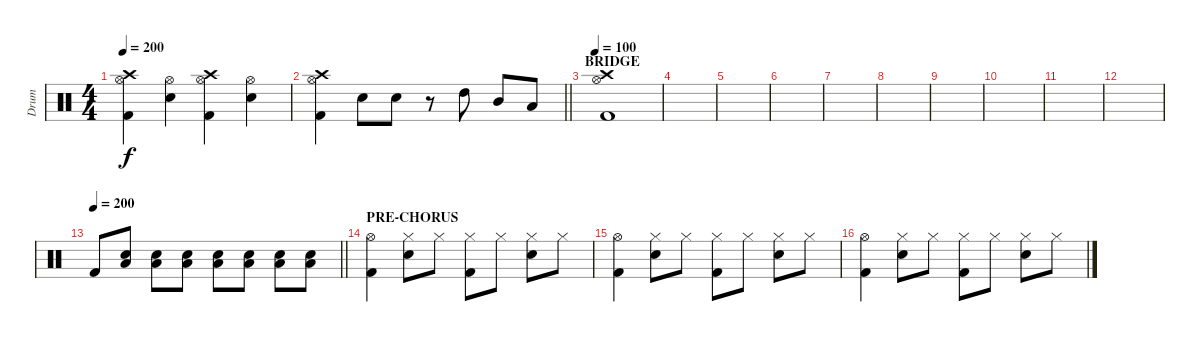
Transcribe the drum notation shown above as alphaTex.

\track ("Drum" "Drum") {instrument percussion}
\staff {score}
\articulation defaults
\ts (4 4)
\tempo 200
\clef neutral
\ks c
("Crash high (hit)" "Hi-Hat (open)" "Kick (hit) 2").4{dy f} ("Hi-Hat (open)" "Snare (hit) 2").4 ("Crash high (hit)" "Hi-Hat (open)" "Kick (hit) 2").4 ("Hi-Hat (open)" "Snare (hit) 2").4 |
\barLineRight lightlight
("Crash high (hit)" "Hi-Hat (open)" "Kick (hit) 2").4 "Snare (hit) 2".8 "Snare (hit) 2".8 r.8 "High Tom (hit)".8 "Mid Tom (hit)".8 "Low Tom (hit)".8 |
\section ("" "BRIDGE")
\tempo 100
("Crash high (hit)" "Hi-Hat (open)" "Kick (hit) 2").1 |
|
|
|
|
|
|
|
|
|
\tempo 200
\barLineRight lightlight "Kick (hit) 2".8
("Low Tom (hit)" "Snare (hit) 2").8{volume 16} ("Low Tom (hit)" "Snare (hit) 2").8 ("Low Tom (hit)" "Snare (hit) 2").8 ("Low Tom (hit)" "Snare (hit) 2").8 ("Low Tom (hit)" "Snare (hit) 2").8 ("Low Tom (hit)" "Snare (hit) 2").8 ("Low Tom (hit)" "Snare (hit) 2").8 |
\section ("" "PRE-CHORUS")
("Hi-Hat (open)" "Kick (hit) 2").4{volume 10} ("Hi-Hat (closed)" "Snare (hit) 2").8 "Hi-Hat (closed)".8 ("Hi-Hat (closed)" "Kick (hit) 2").8 "Hi-Hat (closed)".8 ("Hi-Hat (closed)" "Snare (hit) 2").8 "Hi-Hat (closed)".8 |
("Hi-Hat (open)" "Kick (hit) 2").4 ("Hi-Hat (closed)" "Snare (hit) 2").8 "Hi-Hat (closed)".8 ("Hi-Hat (closed)" "Kick (hit) 2").8 "Hi-Hat (closed)".8 ("Hi-Hat (closed)" "Snare (hit) 2").8 "Hi-Hat (closed)".8 |
("Hi-Hat (open)" "Kick (hit) 2").4 ("Hi-Hat (closed)" "Snare (hit) 2").8 "Hi-Hat (closed)".8 ("Hi-Hat (closed)" "Kick (hit) 2").8 "Hi-Hat (closed)".8 ("Hi-Hat (closed)" "Snare (hit) 2").8 "Hi-Hat (closed)".8
